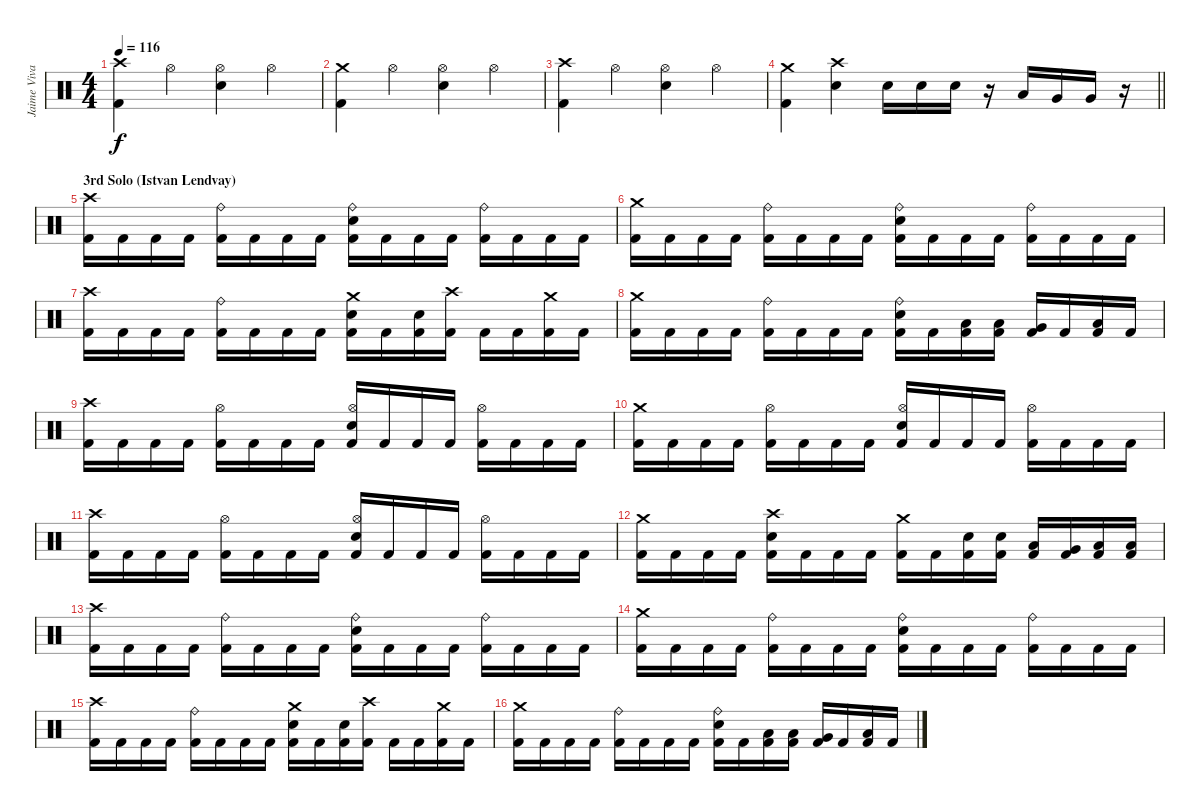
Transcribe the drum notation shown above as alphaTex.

\track ("Jaime Vivar" "Jaime Viva") {instrument percussion}
\staff {score}
\articulation defaults
\ts (4 4)
\tempo 116
\clef neutral
\ks c
("Crash high (hit)" "Kick (hit) 2").4{dy f} "Hi-Hat (open)".4 ("Hi-Hat (open)" "Snare (hit) 2").4 "Hi-Hat (open)".4 |
("Crash medium (hit)" "Kick (hit) 2").4 "Hi-Hat (open)".4 ("Hi-Hat (open)" "Snare (hit) 2").4 "Hi-Hat (open)".4 |
("Crash high (hit)" "Kick (hit) 2").4 "Hi-Hat (open)".4 ("Hi-Hat (open)" "Snare (hit) 2").4 "Hi-Hat (open)".4 |
\barLineRight lightlight
("Crash medium (hit)" "Kick (hit) 2").4 ("Crash high (hit)" "Snare (hit) 2").4 "Snare (hit) 2".16 "Snare (hit) 2".16 "Snare (hit) 2".16 r.16 "Low Tom (hit)".16 "Very Low Tom (hit)".16 "Very Low Tom (hit)".16 r.16 |
\section ("" "3rd Solo (Istvan Lendvay) ")
("Crash high (hit)" "Kick (hit) 2").16 "Kick (hit) 2".16 "Kick (hit) 2".16 "Kick (hit) 2".16 ("Ride (bell)" "Kick (hit) 2").16 "Kick (hit) 2".16 "Kick (hit) 2".16 "Kick (hit) 2".16 ("Ride (bell)" "Snare (hit) 2" "Kick (hit) 2").16 "Kick (hit) 2".16 "Kick (hit) 2".16 "Kick (hit) 2".16 ("Ride (bell)" "Kick (hit) 2").16 "Kick (hit) 2".16 "Kick (hit) 2".16 "Kick (hit) 2".16 |
("Crash medium (hit)" "Kick (hit) 2").16 "Kick (hit) 2".16 "Kick (hit) 2".16 "Kick (hit) 2".16 ("Ride (bell)" "Kick (hit) 2").16 "Kick (hit) 2".16 "Kick (hit) 2".16 "Kick (hit) 2".16 ("Ride (bell)" "Snare (hit) 2" "Kick (hit) 2").16 "Kick (hit) 2".16 "Kick (hit) 2".16 "Kick (hit) 2".16 ("Ride (bell)" "Kick (hit) 2").16 "Kick (hit) 2".16 "Kick (hit) 2".16 "Kick (hit) 2".16 |
("Crash high (hit)" "Kick (hit) 2").16 "Kick (hit) 2".16 "Kick (hit) 2".16 "Kick (hit) 2".16 ("Ride (bell)" "Kick (hit) 2").16 "Kick (hit) 2".16 "Kick (hit) 2".16 "Kick (hit) 2".16 ("Crash medium (hit)" "Snare (hit) 2" "Kick (hit) 2").16 "Kick (hit) 2".16 ("Snare (hit) 2" "Kick (hit) 2").16 ("Crash high (hit)" "Kick (hit) 2").16 "Kick (hit) 2".16 "Kick (hit) 2".16 ("Crash medium (hit)" "Kick (hit) 2").16 "Kick (hit) 2".16 |
("Crash medium (hit)" "Kick (hit) 2").16 "Kick (hit) 2".16 "Kick (hit) 2".16 "Kick (hit) 2".16 ("Ride (bell)" "Kick (hit) 2").16 "Kick (hit) 2".16 "Kick (hit) 2".16 "Kick (hit) 2".16 ("Ride (bell)" "Snare (hit) 2" "Kick (hit) 2").16 "Kick (hit) 2".16 ("Low Tom (hit)" "Kick (hit) 2").16 ("Low Tom (hit)" "Kick (hit) 2").16 ("Very Low Tom (hit)" "Kick (hit) 2").16 "Kick (hit) 2".16 ("Low Floor Tom (hit)" "Kick (hit) 2").16 "Kick (hit) 2".16 |
("Crash high (hit)" "Kick (hit) 2").16 "Kick (hit) 2".16 "Kick (hit) 2".16 "Kick (hit) 2".16 ("Hi-Hat (open)" "Kick (hit) 2").16 "Kick (hit) 2".16 "Kick (hit) 2".16 "Kick (hit) 2".16 ("Hi-Hat (open)" "Snare (hit) 2" "Kick (hit) 2").16 "Kick (hit) 2".16 "Kick (hit) 2".16 "Kick (hit) 2".16 ("Hi-Hat (open)" "Kick (hit) 2").16 "Kick (hit) 2".16 "Kick (hit) 2".16 "Kick (hit) 2".16 |
("Crash medium (hit)" "Kick (hit) 2").16 "Kick (hit) 2".16 "Kick (hit) 2".16 "Kick (hit) 2".16 ("Hi-Hat (open)" "Kick (hit) 2").16 "Kick (hit) 2".16 "Kick (hit) 2".16 "Kick (hit) 2".16 ("Hi-Hat (open)" "Snare (hit) 2" "Kick (hit) 2").16 "Kick (hit) 2".16 "Kick (hit) 2".16 "Kick (hit) 2".16 ("Hi-Hat (open)" "Kick (hit) 2").16 "Kick (hit) 2".16 "Kick (hit) 2".16 "Kick (hit) 2".16 |
("Crash high (hit)" "Kick (hit) 2").16 "Kick (hit) 2".16 "Kick (hit) 2".16 "Kick (hit) 2".16 ("Hi-Hat (open)" "Kick (hit) 2").16 "Kick (hit) 2".16 "Kick (hit) 2".16 "Kick (hit) 2".16 ("Hi-Hat (open)" "Snare (hit) 2" "Kick (hit) 2").16 "Kick (hit) 2".16 "Kick (hit) 2".16 "Kick (hit) 2".16 ("Hi-Hat (open)" "Kick (hit) 2").16 "Kick (hit) 2".16 "Kick (hit) 2".16 "Kick (hit) 2".16 |
("Crash medium (hit)" "Kick (hit) 2").16 "Kick (hit) 2".16 "Kick (hit) 2".16 "Kick (hit) 2".16 ("Crash high (hit)" "Snare (hit) 2" "Kick (hit) 2").16 "Kick (hit) 2".16 "Kick (hit) 2".16 "Kick (hit) 2".16 ("Crash medium (hit)" "Kick (hit) 2").16 "Kick (hit) 2".16 ("Snare (hit) 2" "Kick (hit) 2").16 ("Snare (hit) 2" "Kick (hit) 2").16 ("Low Tom (hit)" "Kick (hit) 2").16 ("Very Low Tom (hit)" "Kick (hit) 2").16 ("Low Floor Tom (hit)" "Kick (hit) 2").16 ("Low Floor Tom (hit)" "Kick (hit) 2").16 |
("Crash high (hit)" "Kick (hit) 2").16 "Kick (hit) 2".16 "Kick (hit) 2".16 "Kick (hit) 2".16 ("Ride (bell)" "Kick (hit) 2").16 "Kick (hit) 2".16 "Kick (hit) 2".16 "Kick (hit) 2".16 ("Ride (bell)" "Snare (hit) 2" "Kick (hit) 2").16 "Kick (hit) 2".16 "Kick (hit) 2".16 "Kick (hit) 2".16 ("Ride (bell)" "Kick (hit) 2").16 "Kick (hit) 2".16 "Kick (hit) 2".16 "Kick (hit) 2".16 |
("Crash medium (hit)" "Kick (hit) 2").16 "Kick (hit) 2".16 "Kick (hit) 2".16 "Kick (hit) 2".16 ("Ride (bell)" "Kick (hit) 2").16 "Kick (hit) 2".16 "Kick (hit) 2".16 "Kick (hit) 2".16 ("Ride (bell)" "Snare (hit) 2" "Kick (hit) 2").16 "Kick (hit) 2".16 "Kick (hit) 2".16 "Kick (hit) 2".16 ("Ride (bell)" "Kick (hit) 2").16 "Kick (hit) 2".16 "Kick (hit) 2".16 "Kick (hit) 2".16 |
("Crash high (hit)" "Kick (hit) 2").16 "Kick (hit) 2".16 "Kick (hit) 2".16 "Kick (hit) 2".16 ("Ride (bell)" "Kick (hit) 2").16 "Kick (hit) 2".16 "Kick (hit) 2".16 "Kick (hit) 2".16 ("Crash medium (hit)" "Snare (hit) 2" "Kick (hit) 2").16 "Kick (hit) 2".16 ("Snare (hit) 2" "Kick (hit) 2").16 ("Crash high (hit)" "Kick (hit) 2").16 "Kick (hit) 2".16 "Kick (hit) 2".16 ("Crash medium (hit)" "Kick (hit) 2").16 "Kick (hit) 2".16 |
("Crash medium (hit)" "Kick (hit) 2").16 "Kick (hit) 2".16 "Kick (hit) 2".16 "Kick (hit) 2".16 ("Ride (bell)" "Kick (hit) 2").16 "Kick (hit) 2".16 "Kick (hit) 2".16 "Kick (hit) 2".16 ("Ride (bell)" "Snare (hit) 2" "Kick (hit) 2").16 "Kick (hit) 2".16 ("Low Tom (hit)" "Kick (hit) 2").16 ("Low Tom (hit)" "Kick (hit) 2").16 ("Very Low Tom (hit)" "Kick (hit) 2").16 "Kick (hit) 2".16 ("Low Floor Tom (hit)" "Kick (hit) 2").16 "Kick (hit) 2".16
